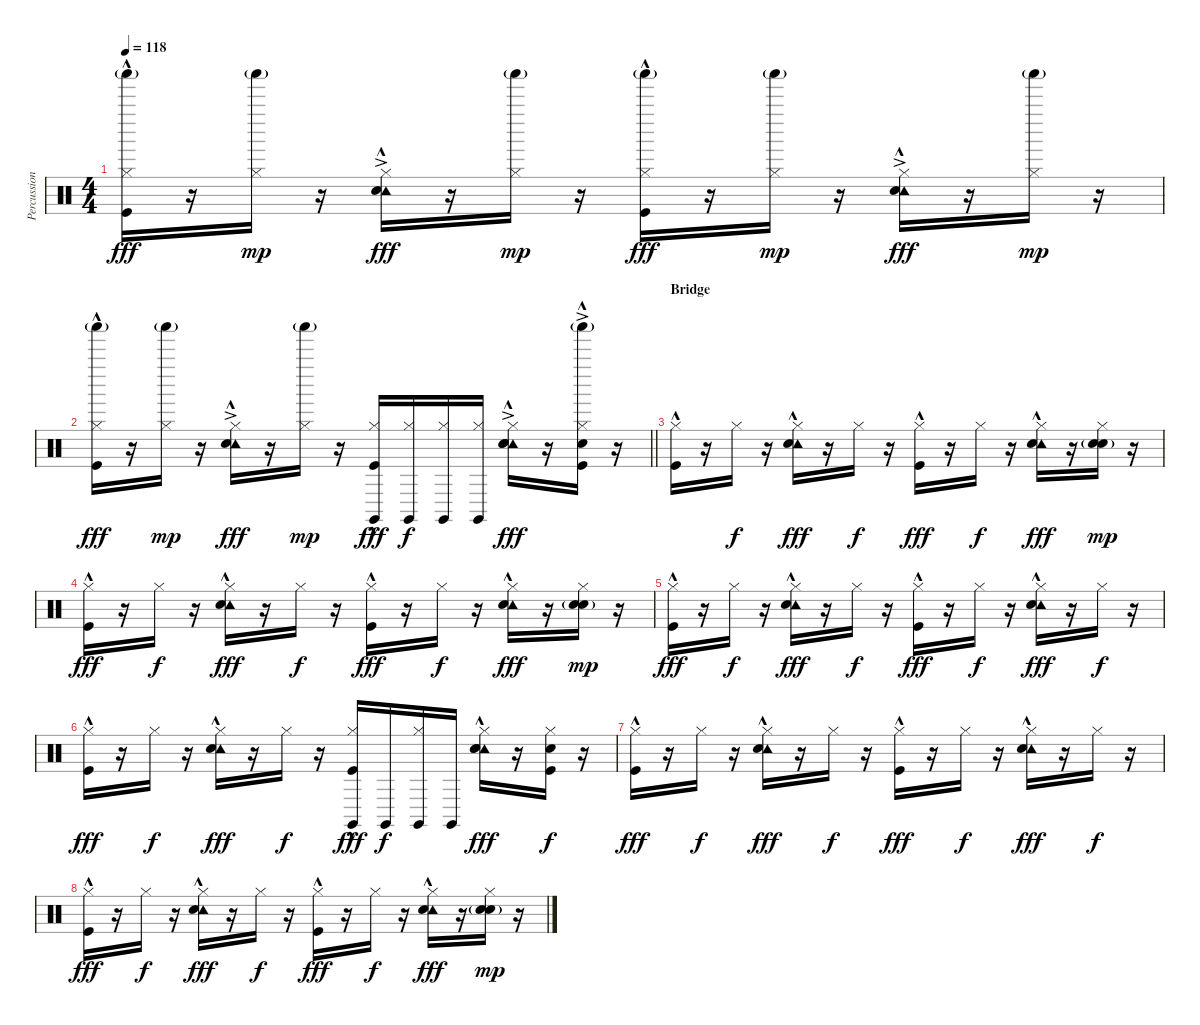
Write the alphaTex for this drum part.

\track ("Percussion" "Percussion") {instrument percussion}
\staff {score}
\articulation defaults
\ts (4 4)
\tempo 118
\clef neutral
\ks c
("Shaker (hit)"{g} "Hi-Hat (closed)" "Kick (hit)"{hac}).16{dy fff} r.16 ("Shaker (hit)"{g} "Hi-Hat (closed)").16{dy mp} r.16 ("Tambourine (hit)"{ac} "Hi-Hat (closed)" "Snare (hit) 2"{hac}).16{dy fff} r.16 ("Shaker (hit)"{g} "Hi-Hat (closed)").16{dy mp} r.16 ("Shaker (hit)"{g} "Hi-Hat (closed)" "Kick (hit)"{hac}).16{dy fff} r.16 ("Shaker (hit)"{g} "Hi-Hat (closed)").16{dy mp} r.16 ("Tambourine (hit)"{ac} "Hi-Hat (closed)" "Snare (hit) 2"{hac}).16{dy fff} r.16 ("Shaker (hit)"{g} "Hi-Hat (closed)").16{dy mp} r.16 |
\barLineRight lightlight
("Shaker (hit)"{g} "Hi-Hat (closed)" "Kick (hit)"{hac}).16{dy fff} r.16 ("Shaker (hit)"{g} "Hi-Hat (closed)").16{dy mp} r.16 ("Tambourine (hit)"{ac} "Hi-Hat (closed)" "Snare (hit) 2"{hac}).16{dy fff} r.16 ("Shaker (hit)"{g} "Hi-Hat (closed)").16{dy mp} r.16 ("Claves (hit)" "Hi-Hat (closed)" "Kick (hit)"{hac}).16{dy fff} ("Claves (hit)" "Hi-Hat (closed)").16{dy f} ("Claves (hit)" "Hi-Hat (closed)").16 ("Claves (hit)" "Hi-Hat (closed)").16 ("Tambourine (hit)"{ac} "Hi-Hat (closed)" "Hand Clap (hit)"{ac} "Snare (hit) 2"{hac}).16{dy fff} r.16 ("Shaker (hit)"{g} "Hi-Hat (closed)" "Hand Clap (hit)"{ac} "Kick (hit)"{hac}).16 r.16 |
\section ("" "Bridge")
("Hi-Hat (closed)" "Kick (hit)"{hac}).16 r.16 "Hi-Hat (closed)".16{dy f} r.16 ("Tambourine (hit)" "Hi-Hat (closed)" "Snare (hit) 2"{hac}).16{dy fff} r.16 "Hi-Hat (closed)".16{dy f} r.16 ("Hi-Hat (closed)" "Kick (hit)"{hac}).16{dy fff} r.16 "Hi-Hat (closed)".16{dy f} r.16 ("Tambourine (hit)" "Hi-Hat (closed)" "Snare (hit) 2"{hac}).16{dy fff} r.16 ("Hi-Hat (closed)" "Hand Clap (hit)"{g} "Snare (hit) 2"{g}).16{dy mp} r.16 |
("Hi-Hat (closed)" "Kick (hit)"{hac}).16{dy fff} r.16 "Hi-Hat (closed)".16{dy f} r.16 ("Tambourine (hit)" "Hi-Hat (closed)" "Snare (hit) 2"{hac}).16{dy fff} r.16 "Hi-Hat (closed)".16{dy f} r.16 ("Hi-Hat (closed)" "Kick (hit)"{hac}).16{dy fff} r.16 "Hi-Hat (closed)".16{dy f} r.16 ("Tambourine (hit)" "Hi-Hat (closed)" "Snare (hit) 2"{hac}).16{dy fff} r.16 ("Hi-Hat (closed)" "Hand Clap (hit)" "Snare (hit) 2"{g}).16{dy mp} r.16 |
("Hi-Hat (closed)" "Kick (hit)"{hac}).16{dy fff} r.16 "Hi-Hat (closed)".16{dy f} r.16 ("Tambourine (hit)" "Hi-Hat (closed)" "Snare (hit) 2"{hac}).16{dy fff} r.16 "Hi-Hat (closed)".16{dy f} r.16 ("Hi-Hat (closed)" "Kick (hit)"{hac}).16{dy fff} r.16 "Hi-Hat (closed)".16{dy f} r.16 ("Tambourine (hit)" "Hi-Hat (closed)" "Snare (hit) 2"{hac}).16{dy fff} r.16 "Hi-Hat (closed)".16{dy f} r.16 |
("Hi-Hat (closed)" "Kick (hit)"{hac}).16{dy fff} r.16 "Hi-Hat (closed)".16{dy f} r.16 ("Tambourine (hit)" "Hi-Hat (closed)" "Snare (hit) 2"{hac}).16{dy fff} r.16 "Hi-Hat (closed)".16{dy f} r.16 ("Claves (hit)" "Hi-Hat (closed)" "Kick (hit)"{hac}).16{dy fff} "Claves (hit)".16{dy f} ("Claves (hit)" "Hi-Hat (closed)").16 "Claves (hit)".16 ("Tambourine (hit)" "Hi-Hat (closed)" "Hand Clap (hit)" "Snare (hit) 2"{hac}).16{dy fff} r.16 ("Hi-Hat (closed)" "Hand Clap (hit)" "Kick (hit)").16{dy f} r.16 |
("Hi-Hat (closed)" "Kick (hit)"{hac}).16{dy fff} r.16 "Hi-Hat (closed)".16{dy f} r.16 ("Tambourine (hit)" "Hi-Hat (closed)" "Snare (hit) 2"{hac}).16{dy fff} r.16 "Hi-Hat (closed)".16{dy f} r.16 ("Hi-Hat (closed)" "Kick (hit)"{hac}).16{dy fff} r.16 "Hi-Hat (closed)".16{dy f} r.16 ("Tambourine (hit)" "Hi-Hat (closed)" "Snare (hit) 2"{hac}).16{dy fff} r.16 "Hi-Hat (closed)".16{dy f} r.16 |
("Hi-Hat (closed)" "Kick (hit)"{hac}).16{dy fff} r.16 "Hi-Hat (closed)".16{dy f} r.16 ("Tambourine (hit)" "Hi-Hat (closed)" "Snare (hit) 2"{hac}).16{dy fff} r.16 "Hi-Hat (closed)".16{dy f} r.16 ("Hi-Hat (closed)" "Kick (hit)"{hac}).16{dy fff} r.16 "Hi-Hat (closed)".16{dy f} r.16 ("Tambourine (hit)" "Hi-Hat (closed)" "Snare (hit) 2"{hac}).16{dy fff} r.16 ("Hi-Hat (closed)" "Hand Clap (hit)" "Snare (hit) 2"{g}).16{dy mp} r.16
